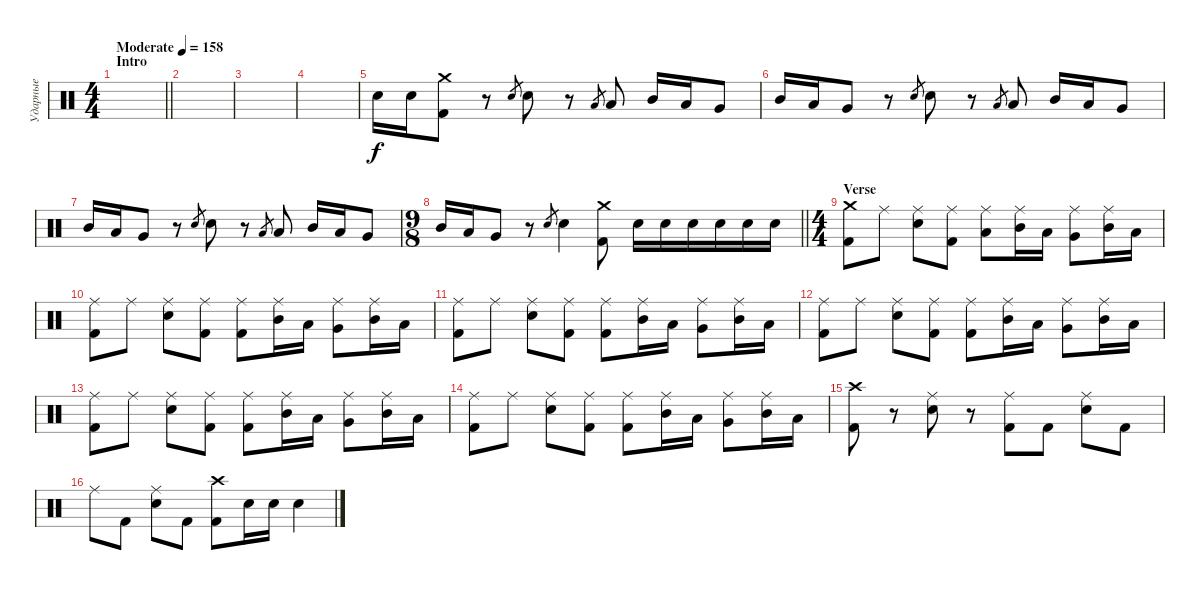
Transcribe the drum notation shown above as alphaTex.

\track ("Ударные" "Ударные") {instrument percussion}
\staff {score}
\articulation defaults
\ts (4 4)
\section ("" "Intro")
\tempo (158 "Moderate")
\clef neutral
\barLineRight lightlight
\ks c
|
|
|
|
"Electric Snare (hit)".16 "Electric Snare (hit)".16 ("Crash medium (hit)" "Kick (hit) 2").8 r.8 "Electric Snare (hit)".8{gr} "Electric Snare (hit)".8 r.8 "Low Tom (hit)".8{gr} "Low Tom (hit)".8 "Mid Tom (hit)".16 "Low Tom (hit)".16 "Very Low Tom (hit)".8 |
"Mid Tom (hit)".16 "Low Tom (hit)".16 "Very Low Tom (hit)".8 r.8 "Electric Snare (hit)".8{gr} "Electric Snare (hit)".8 r.8 "Low Tom (hit)".8{gr} "Low Tom (hit)".8 "Mid Tom (hit)".16 "Low Tom (hit)".16 "Very Low Tom (hit)".8 |
"Mid Tom (hit)".16 "Low Tom (hit)".16 "Very Low Tom (hit)".8 r.8 "Electric Snare (hit)".8{gr} "Electric Snare (hit)".8 r.8 "Low Tom (hit)".8{gr} "Low Tom (hit)".8 "Mid Tom (hit)".16 "Low Tom (hit)".16 "Very Low Tom (hit)".8 |
\ts (9 8)
\barLineRight lightlight "Mid Tom (hit)".16 "Low Tom (hit)".16 "Very Low Tom (hit)".8
r.8 "Electric Snare (hit)".8{gr} "Electric Snare (hit)".4 ("Crash medium (hit)" "Kick (hit) 2").8 "Electric Snare (hit)".16 "Electric Snare (hit)".16 "Electric Snare (hit)".16 "Electric Snare (hit)".16 "Electric Snare (hit)".16 "Electric Snare (hit)".16 |
\ts (4 4)
\section ("" "Verse")
("Crash medium (hit)" "Kick (hit) 2").8 "Ride (middle)".8 ("Ride (middle)" "Electric Snare (hit)").8 ("Ride (middle)" "Kick (hit) 2").8 ("Ride (middle)" "Low Tom (hit)").8 ("Ride (middle)" "Mid Tom (hit)").16 "Low Tom (hit)".16 ("Ride (middle)" "Very Low Tom (hit)").8 ("Ride (middle)" "Mid Tom (hit)").16 "Low Tom (hit)".16 |
("Ride (middle)" "Kick (hit) 2").8 "Ride (middle)".8 ("Ride (middle)" "Electric Snare (hit)").8 ("Ride (middle)" "Kick (hit) 2").8 ("Ride (middle)" "Kick (hit) 2").8 ("Ride (middle)" "Mid Tom (hit)").16 "Low Tom (hit)".16 ("Ride (middle)" "Very Low Tom (hit)").8 ("Ride (middle)" "Mid Tom (hit)").16 "Low Tom (hit)".16 |
("Ride (middle)" "Kick (hit) 2").8 "Ride (middle)".8 ("Ride (middle)" "Electric Snare (hit)").8 ("Ride (middle)" "Kick (hit) 2").8 ("Ride (middle)" "Kick (hit) 2").8 ("Ride (middle)" "Mid Tom (hit)").16 "Low Tom (hit)".16 ("Ride (middle)" "Very Low Tom (hit)").8 ("Ride (middle)" "Mid Tom (hit)").16 "Low Tom (hit)".16 |
("Ride (middle)" "Kick (hit) 2").8 "Ride (middle)".8 ("Ride (middle)" "Electric Snare (hit)").8 ("Ride (middle)" "Kick (hit) 2").8 ("Ride (middle)" "Kick (hit) 2").8 ("Ride (middle)" "Mid Tom (hit)").16 "Low Tom (hit)".16 ("Ride (middle)" "Very Low Tom (hit)").8 ("Ride (middle)" "Mid Tom (hit)").16 "Low Tom (hit)".16 |
("Ride (middle)" "Kick (hit) 2").8 "Ride (middle)".8 ("Ride (middle)" "Electric Snare (hit)").8 ("Ride (middle)" "Kick (hit) 2").8 ("Ride (middle)" "Kick (hit) 2").8 ("Ride (middle)" "Mid Tom (hit)").16 "Low Tom (hit)".16 ("Ride (middle)" "Very Low Tom (hit)").8 ("Ride (middle)" "Mid Tom (hit)").16 "Low Tom (hit)".16 |
("Ride (middle)" "Kick (hit) 2").8 "Ride (middle)".8 ("Ride (middle)" "Electric Snare (hit)").8 ("Ride (middle)" "Kick (hit) 2").8 ("Ride (middle)" "Kick (hit) 2").8 ("Ride (middle)" "Mid Tom (hit)").16 "Low Tom (hit)".16 ("Ride (middle)" "Very Low Tom (hit)").8 ("Ride (middle)" "Mid Tom (hit)").16 "Low Tom (hit)".16 |
("Crash high (hit)" "Kick (hit) 2").8 r.8 ("Ride (middle)" "Electric Snare (hit)").8 r.8 ("Ride (middle)" "Kick (hit) 2").8 "Kick (hit) 2".8 ("Ride (middle)" "Electric Snare (hit)").8 "Kick (hit) 2".8 |
"Ride (middle)".8 "Kick (hit) 2".8 ("Ride (middle)" "Electric Snare (hit)").8 "Kick (hit) 2".8 ("Crash high (hit)" "Kick (hit) 2").8 "Electric Snare (hit)".16 "Electric Snare (hit)".16 "Electric Snare (hit)".4
